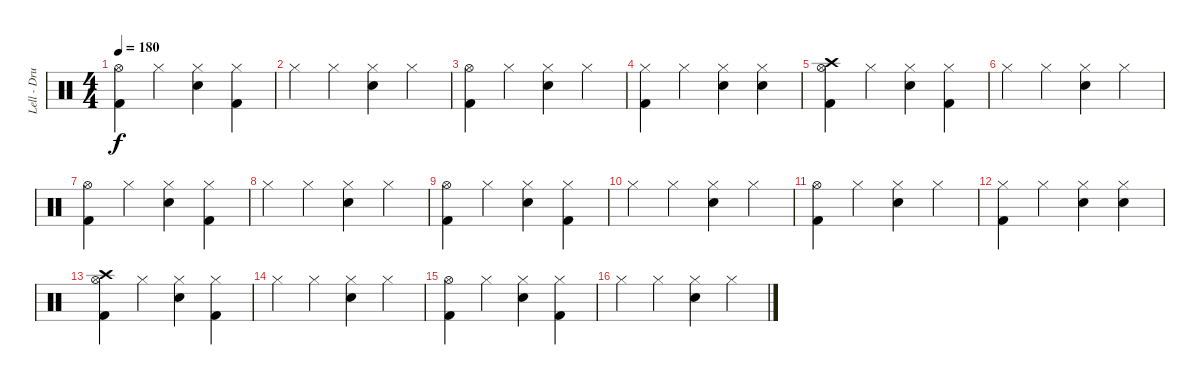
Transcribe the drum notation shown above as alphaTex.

\track ("Lell - Drums" "Lell - Dru") {instrument percussion}
\staff {score}
\articulation defaults
\ts (4 4)
\tempo 180
\clef neutral
\ks c
("Hi-Hat (open)" "Kick (hit) 2").4{dy f} "Hi-Hat (closed)".4 ("Hi-Hat (closed)" "Snare (hit) 2").4 ("Hi-Hat (closed)" "Kick (hit) 2").4 |
"Hi-Hat (closed)".4 "Hi-Hat (closed)".4 ("Hi-Hat (closed)" "Snare (hit) 2").4 "Hi-Hat (closed)".4 |
("Hi-Hat (open)" "Kick (hit) 2").4 "Hi-Hat (closed)".4 ("Hi-Hat (closed)" "Snare (hit) 2").4 "Hi-Hat (closed)".4 |
("Hi-Hat (closed)" "Kick (hit) 2").4 "Hi-Hat (closed)".4 ("Hi-Hat (closed)" "Snare (hit) 2").4 ("Hi-Hat (closed)" "Snare (hit) 2").4 |
("Crash high (hit)" "Hi-Hat (open)" "Kick (hit) 2").4 "Hi-Hat (closed)".4 ("Hi-Hat (closed)" "Snare (hit) 2").4 ("Hi-Hat (closed)" "Kick (hit) 2").4 |
"Hi-Hat (closed)".4 "Hi-Hat (closed)".4 ("Hi-Hat (closed)" "Snare (hit) 2").4 "Hi-Hat (closed)".4 |
("Hi-Hat (open)" "Kick (hit) 2").4 "Hi-Hat (closed)".4 ("Hi-Hat (closed)" "Snare (hit) 2").4 ("Hi-Hat (closed)" "Kick (hit) 2").4 |
"Hi-Hat (closed)".4 "Hi-Hat (closed)".4 ("Hi-Hat (closed)" "Snare (hit) 2").4 "Hi-Hat (closed)".4 |
("Hi-Hat (open)" "Kick (hit) 2").4 "Hi-Hat (closed)".4 ("Hi-Hat (closed)" "Snare (hit) 2").4 ("Hi-Hat (closed)" "Kick (hit) 2").4 |
"Hi-Hat (closed)".4 "Hi-Hat (closed)".4 ("Hi-Hat (closed)" "Snare (hit) 2").4 "Hi-Hat (closed)".4 |
("Hi-Hat (open)" "Kick (hit) 2").4 "Hi-Hat (closed)".4 ("Hi-Hat (closed)" "Snare (hit) 2").4 "Hi-Hat (closed)".4 |
("Hi-Hat (closed)" "Kick (hit) 2").4 "Hi-Hat (closed)".4 ("Hi-Hat (closed)" "Snare (hit) 2").4 ("Hi-Hat (closed)" "Snare (hit) 2").4 |
("Crash high (hit)" "Hi-Hat (open)" "Kick (hit) 2").4 "Hi-Hat (closed)".4 ("Hi-Hat (closed)" "Snare (hit) 2").4 ("Hi-Hat (closed)" "Kick (hit) 2").4 |
"Hi-Hat (closed)".4 "Hi-Hat (closed)".4 ("Hi-Hat (closed)" "Snare (hit) 2").4 "Hi-Hat (closed)".4 |
("Hi-Hat (open)" "Kick (hit) 2").4 "Hi-Hat (closed)".4 ("Hi-Hat (closed)" "Snare (hit) 2").4 ("Hi-Hat (closed)" "Kick (hit) 2").4 |
"Hi-Hat (closed)".4 "Hi-Hat (closed)".4 ("Hi-Hat (closed)" "Snare (hit) 2").4 "Hi-Hat (closed)".4
